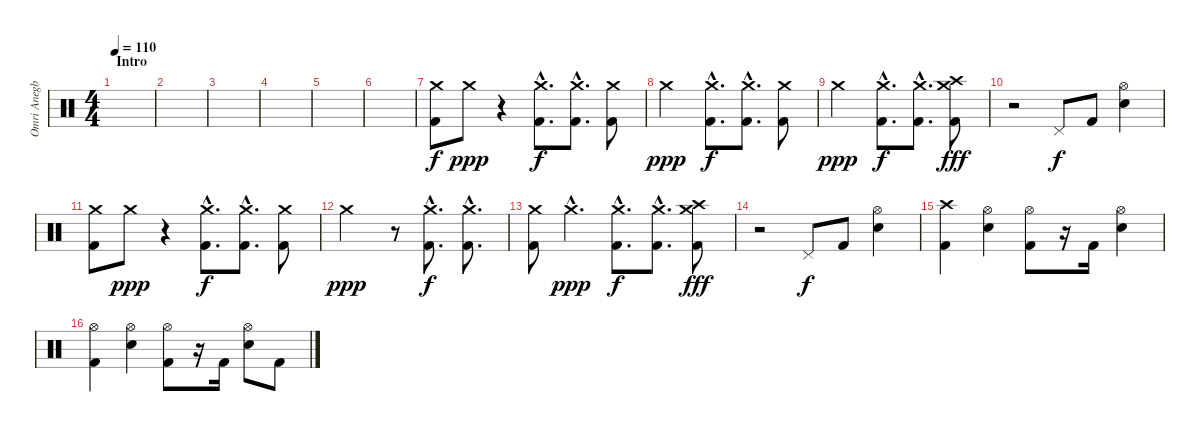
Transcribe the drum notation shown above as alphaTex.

\track ("Omri Anegbi" "Omri Anegb") {instrument percussion}
\staff {score}
\articulation defaults
\ts (4 4)
\section ("" "Intro")
\tempo 110
\clef neutral
\ks c
|
|
|
|
|
|
("Crash medium (hit)" "Kick (hit) 2").8 "Crash medium (hit)".8{dy ppp} r.4 ("Crash medium (hit)"{hac} "Kick (hit) 2"{hac}).8{d dy f} ("Crash medium (hit)"{hac} "Kick (hit) 2"{hac}).8{d} ("Crash medium (hit)" "Kick (hit) 2").8 |
"Crash medium (hit)".2{dy ppp} ("Crash medium (hit)"{hac} "Kick (hit) 2"{hac}).8{d dy f} ("Crash medium (hit)"{hac} "Kick (hit) 2"{hac}).8{d} ("Crash medium (hit)" "Kick (hit) 2").8 |
"Crash medium (hit)".2{dy ppp} ("Crash medium (hit)"{hac} "Kick (hit) 2"{hac}).8{d dy f} ("Crash medium (hit)"{hac} "Kick (hit) 2"{hac}).8{d} ("Crash medium (hit)" "Crash high (hit)" "Kick (hit) 2").8{dy fff} |
r.2 "Pedal Hi-Hat (hit)".8{dy f} "Kick (hit) 2".8 ("Hi-Hat (open)" "Snare (hit) 2").4 |
("Crash medium (hit)" "Kick (hit) 2").8 "Crash medium (hit)".8{dy ppp} r.4 ("Crash medium (hit)"{hac} "Kick (hit) 2"{hac}).8{d dy f} ("Crash medium (hit)"{hac} "Kick (hit) 2"{hac}).8{d} ("Crash medium (hit)" "Kick (hit) 2").8 |
"Crash medium (hit)".2{dy ppp} r.8 ("Crash medium (hit)"{hac} "Kick (hit) 2"{hac}).8{d dy f} ("Crash medium (hit)"{hac} "Kick (hit) 2"{hac}).8{d} |
("Crash medium (hit)" "Kick (hit) 2").8 "Crash medium (hit)"{hac}.4{d dy ppp} ("Crash medium (hit)"{hac} "Kick (hit) 2"{hac}).8{d dy f} ("Crash medium (hit)"{hac} "Kick (hit) 2"{hac}).8{d} ("Crash medium (hit)" "Crash high (hit)" "Kick (hit) 2").8{dy fff} |
r.2 "Pedal Hi-Hat (hit)".8{dy f} "Kick (hit) 2".8 ("Hi-Hat (open)" "Snare (hit) 2").4 |
("Crash high (hit)" "Kick (hit) 2").4 ("Hi-Hat (open)" "Snare (hit) 2").4 ("Hi-Hat (open)" "Kick (hit) 2").8 r.16 "Kick (hit) 2".16 ("Hi-Hat (open)" "Snare (hit) 2").4 |
("Hi-Hat (open)" "Kick (hit) 2").4 ("Hi-Hat (open)" "Snare (hit) 2").4 ("Hi-Hat (open)" "Kick (hit) 2").8 r.16 "Kick (hit) 2".16 ("Hi-Hat (open)" "Snare (hit) 2").8 "Kick (hit) 2".8
